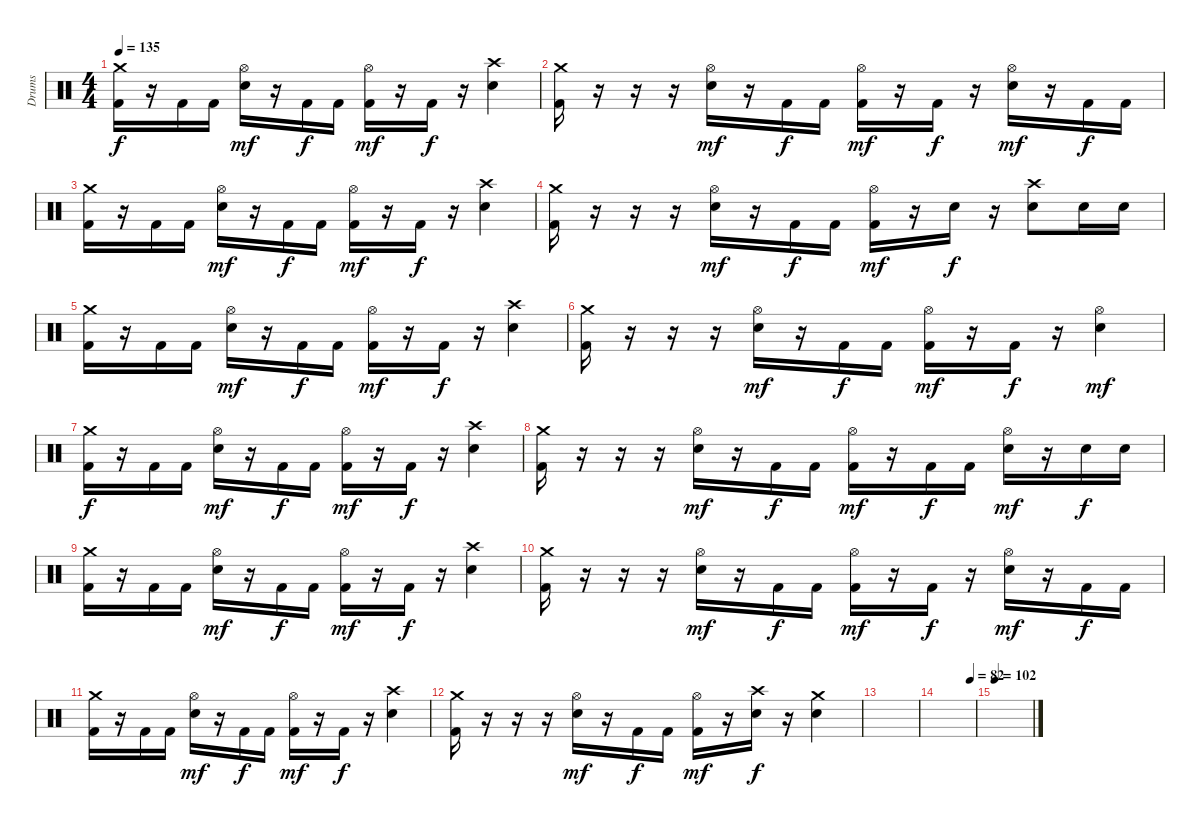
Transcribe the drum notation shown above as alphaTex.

\track ("Drums" "Drums") {instrument percussion}
\staff {score}
\articulation defaults
\ts (4 4)
\tempo 135
\clef neutral
\ks c
("Crash medium (hit)" "Kick (hit) 2").16{dy f} r.16 "Kick (hit) 2".16 "Kick (hit) 2".16 ("Hi-Hat (open)" "Electric Snare (hit)").16{dy mf} r.16 "Kick (hit) 2".16{dy f} "Kick (hit) 2".16 ("Hi-Hat (open)" "Kick (hit) 2").16{dy mf} r.16 "Kick (hit) 2".16{dy f} r.16 ("Crash high (hit)" "Electric Snare (hit)").4 |
("Crash medium (hit)" "Kick (hit) 2").16 r.16 r.16 r.16 ("Hi-Hat (open)" "Electric Snare (hit)").16{dy mf} r.16 "Kick (hit) 2".16{dy f} "Kick (hit) 2".16 ("Hi-Hat (open)" "Kick (hit) 2").16{dy mf} r.16 "Kick (hit) 2".16{dy f} r.16 ("Hi-Hat (open)" "Electric Snare (hit)").16{dy mf} r.16 "Kick (hit) 2".16{dy f} "Kick (hit) 2".16 |
("Crash medium (hit)" "Kick (hit) 2").16 r.16 "Kick (hit) 2".16 "Kick (hit) 2".16 ("Hi-Hat (open)" "Electric Snare (hit)").16{dy mf} r.16 "Kick (hit) 2".16{dy f} "Kick (hit) 2".16 ("Hi-Hat (open)" "Kick (hit) 2").16{dy mf} r.16 "Kick (hit) 2".16{dy f} r.16 ("Crash high (hit)" "Electric Snare (hit)").4 |
("Crash medium (hit)" "Kick (hit) 2").16 r.16 r.16 r.16 ("Hi-Hat (open)" "Electric Snare (hit)").16{dy mf} r.16 "Kick (hit) 2".16{dy f} "Kick (hit) 2".16 ("Hi-Hat (open)" "Kick (hit) 2").16{dy mf} r.16 "Electric Snare (hit)".16{dy f} r.16 ("Crash high (hit)" "Electric Snare (hit)").8 "Electric Snare (hit)".16 "Electric Snare (hit)".16 |
("Crash medium (hit)" "Kick (hit) 2").16 r.16 "Kick (hit) 2".16 "Kick (hit) 2".16 ("Hi-Hat (open)" "Electric Snare (hit)").16{dy mf} r.16 "Kick (hit) 2".16{dy f} "Kick (hit) 2".16 ("Hi-Hat (open)" "Kick (hit) 2").16{dy mf} r.16 "Kick (hit) 2".16{dy f} r.16 ("Crash high (hit)" "Electric Snare (hit)").4 |
("Crash medium (hit)" "Kick (hit) 2").16 r.16 r.16 r.16 ("Hi-Hat (open)" "Electric Snare (hit)").16{dy mf} r.16 "Kick (hit) 2".16{dy f} "Kick (hit) 2".16 ("Hi-Hat (open)" "Kick (hit) 2").16{dy mf} r.16 "Kick (hit) 2".16{dy f} r.16 ("Hi-Hat (open)" "Electric Snare (hit)").4{dy mf} |
("Crash medium (hit)" "Kick (hit) 2").16{dy f} r.16 "Kick (hit) 2".16 "Kick (hit) 2".16 ("Hi-Hat (open)" "Electric Snare (hit)").16{dy mf} r.16 "Kick (hit) 2".16{dy f} "Kick (hit) 2".16 ("Hi-Hat (open)" "Kick (hit) 2").16{dy mf} r.16 "Kick (hit) 2".16{dy f} r.16 ("Crash high (hit)" "Electric Snare (hit)").4 |
("Crash medium (hit)" "Kick (hit) 2").16 r.16 r.16 r.16 ("Hi-Hat (open)" "Electric Snare (hit)").16{dy mf} r.16 "Kick (hit) 2".16{dy f} "Kick (hit) 2".16 ("Hi-Hat (open)" "Kick (hit) 2").16{dy mf} r.16 "Kick (hit) 2".16{dy f} "Kick (hit) 2".16 ("Hi-Hat (open)" "Electric Snare (hit)").16{dy mf} r.16 "Electric Snare (hit)".16{dy f} "Electric Snare (hit)".16 |
("Crash medium (hit)" "Kick (hit) 2").16 r.16 "Kick (hit) 2".16 "Kick (hit) 2".16 ("Hi-Hat (open)" "Electric Snare (hit)").16{dy mf} r.16 "Kick (hit) 2".16{dy f} "Kick (hit) 2".16 ("Hi-Hat (open)" "Kick (hit) 2").16{dy mf} r.16 "Kick (hit) 2".16{dy f} r.16 ("Crash high (hit)" "Electric Snare (hit)").4 |
("Crash medium (hit)" "Kick (hit) 2").16 r.16 r.16 r.16 ("Hi-Hat (open)" "Electric Snare (hit)").16{dy mf} r.16 "Kick (hit) 2".16{dy f} "Kick (hit) 2".16 ("Hi-Hat (open)" "Kick (hit) 2").16{dy mf} r.16 "Kick (hit) 2".16{dy f} r.16 ("Hi-Hat (open)" "Electric Snare (hit)").16{dy mf} r.16 "Kick (hit) 2".16{dy f} "Kick (hit) 2".16 |
("Crash medium (hit)" "Kick (hit) 2").16 r.16 "Kick (hit) 2".16 "Kick (hit) 2".16 ("Hi-Hat (open)" "Electric Snare (hit)").16{dy mf} r.16 "Kick (hit) 2".16{dy f} "Kick (hit) 2".16 ("Hi-Hat (open)" "Kick (hit) 2").16{dy mf} r.16 "Kick (hit) 2".16{dy f} r.16 ("Crash high (hit)" "Electric Snare (hit)").4 |
("Crash medium (hit)" "Kick (hit) 2").16 r.16 r.16 r.16 ("Hi-Hat (open)" "Electric Snare (hit)").16{dy mf} r.16 "Kick (hit) 2".16{dy f} "Kick (hit) 2".16 ("Hi-Hat (open)" "Kick (hit) 2").16{dy mf} r.16 ("Crash high (hit)" "Electric Snare (hit)").16{dy f} r.16 ("Crash medium (hit)" "Electric Snare (hit)").4 |
|
\tempo (82 0.875)
|
\tempo 102
